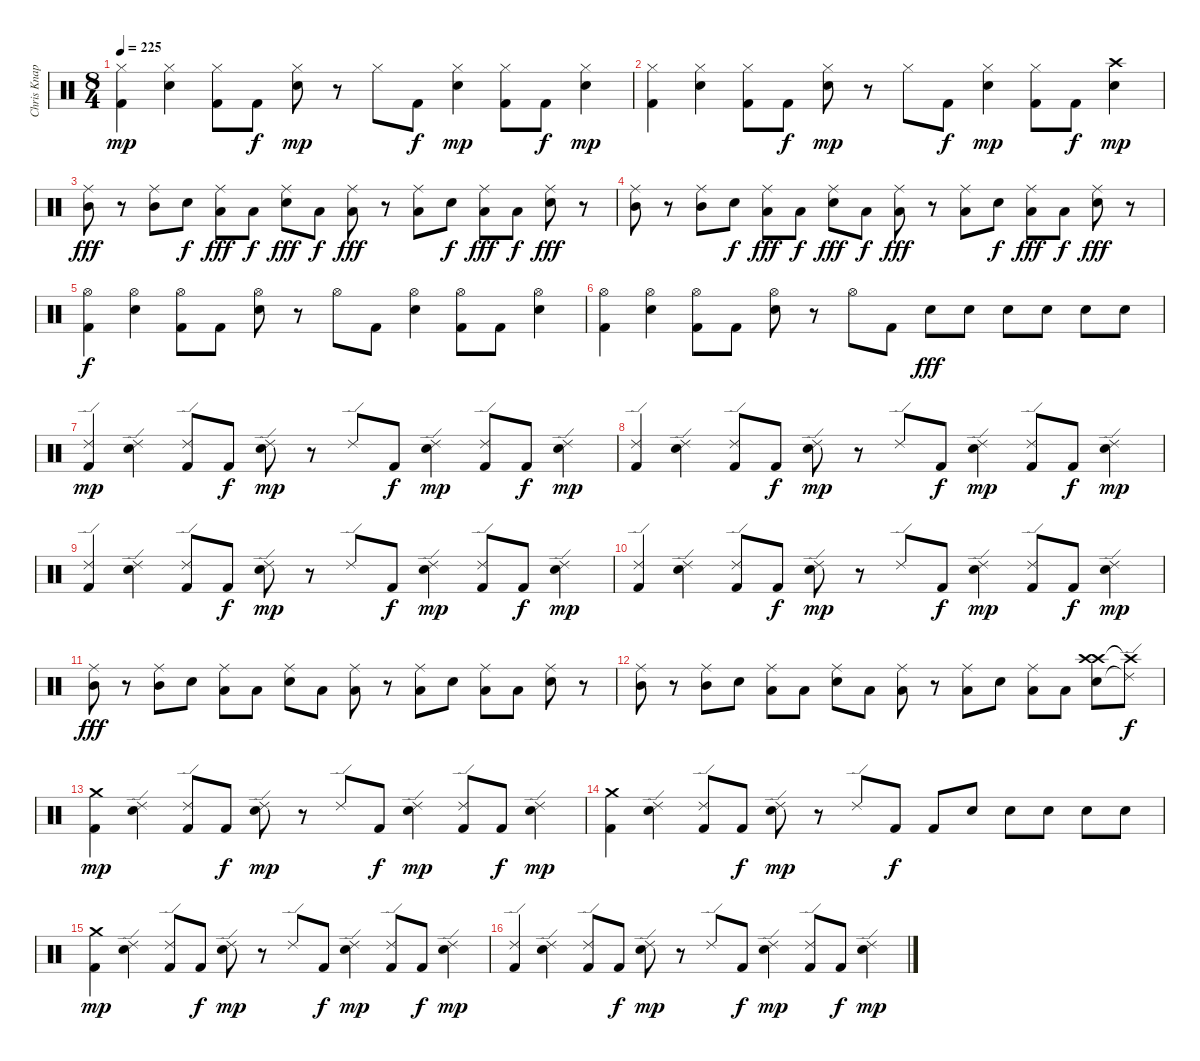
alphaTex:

\track ("Chris Knapp" "Chris Knap") {instrument percussion}
\staff {score}
\articulation defaults
\ts (8 4)
\tempo 225
\clef neutral
\ks c
("Hi-Hat (closed)" "Kick (hit) 2").4{dy mp} ("Hi-Hat (closed)" "Electric Snare (hit)").4 ("Hi-Hat (closed)" "Kick (hit) 2").8 "Kick (hit) 2".8{dy f} ("Hi-Hat (closed)" "Electric Snare (hit)").8{dy mp} r.8 "Hi-Hat (closed)".8 "Kick (hit) 2".8{dy f} ("Hi-Hat (closed)" "Electric Snare (hit)").4{dy mp} ("Hi-Hat (closed)" "Kick (hit) 2").8 "Kick (hit) 2".8{dy f} ("Hi-Hat (closed)" "Electric Snare (hit)").4{dy mp} |
("Hi-Hat (closed)" "Kick (hit) 2").4 ("Hi-Hat (closed)" "Electric Snare (hit)").4 ("Hi-Hat (closed)" "Kick (hit) 2").8 "Kick (hit) 2".8{dy f} ("Hi-Hat (closed)" "Electric Snare (hit)").8{dy mp} r.8 "Hi-Hat (closed)".8 "Kick (hit) 2".8{dy f} ("Hi-Hat (closed)" "Electric Snare (hit)").4{dy mp} ("Hi-Hat (closed)" "Kick (hit) 2").8 "Kick (hit) 2".8{dy f} ("Crash high (hit)" "Electric Snare (hit)").4{dy mp} |
("Ride (middle)" "Mid Tom (hit)").8{dy fff} r.8 ("Ride (middle)" "Mid Tom (hit)").8 "Electric Snare (hit)".8{dy f} ("Ride (middle)" "Low Floor Tom (hit)").8{dy fff} "Low Floor Tom (hit)".8{dy f} ("Ride (middle)" "Electric Snare (hit)").8{dy fff} "Low Floor Tom (hit)".8{dy f} ("Ride (middle)" "Low Floor Tom (hit)").8{dy fff} r.8 ("Ride (middle)" "Low Floor Tom (hit)").8 "Electric Snare (hit)".8{dy f} ("Ride (middle)" "Low Floor Tom (hit)").8{dy fff} "Low Floor Tom (hit)".8{dy f} ("Ride (middle)" "Electric Snare (hit)").8{dy fff} r.8 |
("Ride (middle)" "Mid Tom (hit)").8 r.8 ("Ride (middle)" "Mid Tom (hit)").8 "Electric Snare (hit)".8{dy f} ("Ride (middle)" "Low Floor Tom (hit)").8{dy fff} "Low Floor Tom (hit)".8{dy f} ("Ride (middle)" "Electric Snare (hit)").8{dy fff} "Low Floor Tom (hit)".8{dy f} ("Ride (middle)" "Low Floor Tom (hit)").8{dy fff} r.8 ("Ride (middle)" "Low Floor Tom (hit)").8 "Electric Snare (hit)".8{dy f} ("Ride (middle)" "Low Floor Tom (hit)").8{dy fff} "Low Floor Tom (hit)".8{dy f} ("Ride (middle)" "Electric Snare (hit)").8{dy fff} r.8 |
("Hi-Hat (open)" "Kick (hit) 2").4{dy f} ("Hi-Hat (open)" "Electric Snare (hit)").4 ("Hi-Hat (open)" "Kick (hit) 2").8 "Kick (hit) 2".8 ("Hi-Hat (open)" "Electric Snare (hit)").8 r.8 "Hi-Hat (open)".8 "Kick (hit) 2".8 ("Hi-Hat (open)" "Electric Snare (hit)").4 ("Hi-Hat (open)" "Kick (hit) 2").8 "Kick (hit) 2".8 ("Hi-Hat (open)" "Electric Snare (hit)").4 |
("Hi-Hat (open)" "Kick (hit) 2").4 ("Hi-Hat (open)" "Electric Snare (hit)").4 ("Hi-Hat (open)" "Kick (hit) 2").8 "Kick (hit) 2".8 ("Hi-Hat (open)" "Electric Snare (hit)").8 r.8 "Hi-Hat (open)".8 "Kick (hit) 2".8 "Electric Snare (hit)".8{dy fff} "Electric Snare (hit)".8 "Electric Snare (hit)".8 "Electric Snare (hit)".8 "Electric Snare (hit)".8 "Electric Snare (hit)".8 |
("Ride (edge) 2" "Kick (hit) 2").4{dy mp} ("Ride (edge) 2" "Electric Snare (hit)").4 ("Ride (edge) 2" "Kick (hit) 2").8 "Kick (hit) 2".8{dy f} ("Ride (edge) 2" "Electric Snare (hit)").8{dy mp} r.8 "Ride (edge) 2".8 "Kick (hit) 2".8{dy f} ("Ride (edge) 2" "Electric Snare (hit)").4{dy mp} ("Ride (edge) 2" "Kick (hit) 2").8 "Kick (hit) 2".8{dy f} ("Ride (edge) 2" "Electric Snare (hit)").4{dy mp} |
("Ride (edge) 2" "Kick (hit) 2").4 ("Ride (edge) 2" "Electric Snare (hit)").4 ("Ride (edge) 2" "Kick (hit) 2").8 "Kick (hit) 2".8{dy f} ("Ride (edge) 2" "Electric Snare (hit)").8{dy mp} r.8 "Ride (edge) 2".8 "Kick (hit) 2".8{dy f} ("Ride (edge) 2" "Electric Snare (hit)").4{dy mp} ("Ride (edge) 2" "Kick (hit) 2").8 "Kick (hit) 2".8{dy f} ("Ride (edge) 2" "Electric Snare (hit)").4{dy mp} |
("Ride (edge) 2" "Kick (hit) 2").4 ("Ride (edge) 2" "Electric Snare (hit)").4 ("Ride (edge) 2" "Kick (hit) 2").8 "Kick (hit) 2".8{dy f} ("Ride (edge) 2" "Electric Snare (hit)").8{dy mp} r.8 "Ride (edge) 2".8 "Kick (hit) 2".8{dy f} ("Ride (edge) 2" "Electric Snare (hit)").4{dy mp} ("Ride (edge) 2" "Kick (hit) 2").8 "Kick (hit) 2".8{dy f} ("Ride (edge) 2" "Electric Snare (hit)").4{dy mp} |
("Ride (edge) 2" "Kick (hit) 2").4 ("Ride (edge) 2" "Electric Snare (hit)").4 ("Ride (edge) 2" "Kick (hit) 2").8 "Kick (hit) 2".8{dy f} ("Ride (edge) 2" "Electric Snare (hit)").8{dy mp} r.8 "Ride (edge) 2".8 "Kick (hit) 2".8{dy f} ("Ride (edge) 2" "Electric Snare (hit)").4{dy mp} ("Ride (edge) 2" "Kick (hit) 2").8 "Kick (hit) 2".8{dy f} ("Ride (edge) 2" "Electric Snare (hit)").4{dy mp} |
("Ride (middle)" "Mid Tom (hit)").8{dy fff} r.8 ("Ride (middle)" "Mid Tom (hit)").8 "Electric Snare (hit)".8 ("Ride (middle)" "Low Floor Tom (hit)").8 "Low Floor Tom (hit)".8 ("Ride (middle)" "Electric Snare (hit)").8 "Low Floor Tom (hit)".8 ("Ride (middle)" "Low Floor Tom (hit)").8 r.8 ("Ride (middle)" "Low Floor Tom (hit)").8 "Electric Snare (hit)".8 ("Ride (middle)" "Low Floor Tom (hit)").8 "Low Floor Tom (hit)".8 ("Ride (middle)" "Electric Snare (hit)").8 r.8 |
("Ride (middle)" "Mid Tom (hit)").8 r.8 ("Ride (middle)" "Mid Tom (hit)").8 "Electric Snare (hit)".8 ("Ride (middle)" "Low Floor Tom (hit)").8 "Low Floor Tom (hit)".8 ("Ride (middle)" "Electric Snare (hit)").8 "Low Floor Tom (hit)".8 ("Ride (middle)" "Low Floor Tom (hit)").8 r.8 ("Ride (middle)" "Low Floor Tom (hit)").8 "Electric Snare (hit)".8 ("Ride (middle)" "Low Floor Tom (hit)").8 "Low Floor Tom (hit)".8 ("Crash high (hit)" "Electric Snare (hit)" "Crash high (hit)").8 ("Crash high (hit)"{t} "Ride (edge) 2"{t}).8{dy f} |
("Crash medium (hit)" "Kick (hit) 2").4{dy mp} ("Ride (edge) 2" "Electric Snare (hit)").4 ("Ride (edge) 2" "Kick (hit) 2").8 "Kick (hit) 2".8{dy f} ("Ride (edge) 2" "Electric Snare (hit)").8{dy mp} r.8 "Ride (edge) 2".8 "Kick (hit) 2".8{dy f} ("Ride (edge) 2" "Electric Snare (hit)").4{dy mp} ("Ride (edge) 2" "Kick (hit) 2").8 "Kick (hit) 2".8{dy f} ("Ride (edge) 2" "Electric Snare (hit)").4{dy mp} |
("Crash medium (hit)" "Kick (hit) 2").4 ("Ride (edge) 2" "Electric Snare (hit)").4 ("Ride (edge) 2" "Kick (hit) 2").8 "Kick (hit) 2".8{dy f} ("Ride (edge) 2" "Electric Snare (hit)").8{dy mp} r.8 "Ride (edge) 2".8 "Kick (hit) 2".8{dy f} "Kick (hit) 2".8 "Electric Snare (hit)".8 "Electric Snare (hit)".8 "Electric Snare (hit)".8 "Electric Snare (hit)".8 "Electric Snare (hit)".8 |
("Crash medium (hit)" "Kick (hit) 2").4{dy mp} ("Ride (edge) 2" "Electric Snare (hit)").4 ("Ride (edge) 2" "Kick (hit) 2").8 "Kick (hit) 2".8{dy f} ("Ride (edge) 2" "Electric Snare (hit)").8{dy mp} r.8 "Ride (edge) 2".8 "Kick (hit) 2".8{dy f} ("Ride (edge) 2" "Electric Snare (hit)").4{dy mp} ("Ride (edge) 2" "Kick (hit) 2").8 "Kick (hit) 2".8{dy f} ("Ride (edge) 2" "Electric Snare (hit)").4{dy mp} |
("Ride (edge) 2" "Kick (hit) 2").4 ("Ride (edge) 2" "Electric Snare (hit)").4 ("Ride (edge) 2" "Kick (hit) 2").8 "Kick (hit) 2".8{dy f} ("Ride (edge) 2" "Electric Snare (hit)").8{dy mp} r.8 "Ride (edge) 2".8 "Kick (hit) 2".8{dy f} ("Ride (edge) 2" "Electric Snare (hit)").4{dy mp} ("Ride (edge) 2" "Kick (hit) 2").8 "Kick (hit) 2".8{dy f} ("Ride (edge) 2" "Electric Snare (hit)").4{dy mp}
